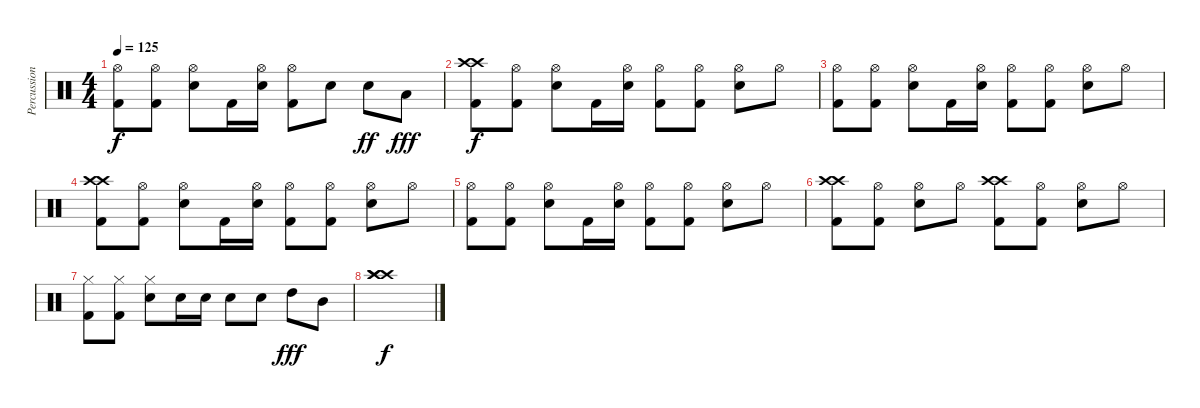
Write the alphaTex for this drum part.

\track ("Percussion" "Percussion") {instrument percussion}
\staff {score}
\articulation defaults
\ts (4 4)
\tempo 125
\clef neutral
\ks c
("Hi-Hat (open)" "Kick (hit) 2").8{dy f} ("Hi-Hat (open)" "Kick (hit) 2").8 ("Hi-Hat (open)" "Electric Snare (hit)").8 "Kick (hit) 2".16 ("Hi-Hat (open)" "Electric Snare (hit)").16 ("Hi-Hat (open)" "Kick (hit) 2").8 "Electric Snare (hit)".8 "Electric Snare (hit)".8{dy ff} "Low Tom (hit)".8{dy fff} |
("Crash high (hit)" "Kick (hit) 2" "Crash high (hit)").8{dy f} ("Hi-Hat (open)" "Kick (hit) 2").8 ("Hi-Hat (open)" "Electric Snare (hit)").8 "Kick (hit) 2".16 ("Hi-Hat (open)" "Electric Snare (hit)").16 ("Hi-Hat (open)" "Kick (hit) 2").8 ("Hi-Hat (open)" "Kick (hit) 2").8 ("Hi-Hat (open)" "Electric Snare (hit)").8 "Hi-Hat (open)".8 |
("Hi-Hat (open)" "Kick (hit) 2").8 ("Hi-Hat (open)" "Kick (hit) 2").8 ("Hi-Hat (open)" "Electric Snare (hit)").8 "Kick (hit) 2".16 ("Hi-Hat (open)" "Electric Snare (hit)").16 ("Hi-Hat (open)" "Kick (hit) 2").8 ("Hi-Hat (open)" "Kick (hit) 2").8 ("Hi-Hat (open)" "Electric Snare (hit)").8 "Hi-Hat (open)".8 |
("Crash high (hit)" "Kick (hit) 2" "Crash high (hit)").8 ("Hi-Hat (open)" "Kick (hit) 2").8 ("Hi-Hat (open)" "Electric Snare (hit)").8 "Kick (hit) 2".16 ("Hi-Hat (open)" "Electric Snare (hit)").16 ("Hi-Hat (open)" "Kick (hit) 2").8 ("Hi-Hat (open)" "Kick (hit) 2").8 ("Hi-Hat (open)" "Electric Snare (hit)").8 "Hi-Hat (open)".8 |
("Hi-Hat (open)" "Kick (hit) 2").8 ("Hi-Hat (open)" "Kick (hit) 2").8 ("Hi-Hat (open)" "Electric Snare (hit)").8 "Kick (hit) 2".16 ("Hi-Hat (open)" "Electric Snare (hit)").16 ("Hi-Hat (open)" "Kick (hit) 2").8 ("Hi-Hat (open)" "Kick (hit) 2").8 ("Hi-Hat (open)" "Electric Snare (hit)").8 "Hi-Hat (open)".8 |
("Crash high (hit)" "Kick (hit) 2" "Crash high (hit)").8 ("Hi-Hat (open)" "Kick (hit) 2").8 ("Hi-Hat (open)" "Electric Snare (hit)").8 "Hi-Hat (open)".8 ("Crash high (hit)" "Kick (hit) 2" "Crash high (hit)").8 ("Hi-Hat (open)" "Kick (hit) 2").8 ("Hi-Hat (open)" "Electric Snare (hit)").8 "Hi-Hat (open)".8 |
("Hi-Hat (closed)" "Kick (hit) 2").8 ("Hi-Hat (closed)" "Kick (hit) 2").8 ("Hi-Hat (closed)" "Electric Snare (hit)").8 "Electric Snare (hit)".16 "Electric Snare (hit)".16 "Electric Snare (hit)".8 "Electric Snare (hit)".8 "High Tom (hit)".8{dy fff} "Mid Tom (hit)".8 |
("Crash high (hit)" "Crash high (hit)" "Crash high (hit)").1{dy f}
